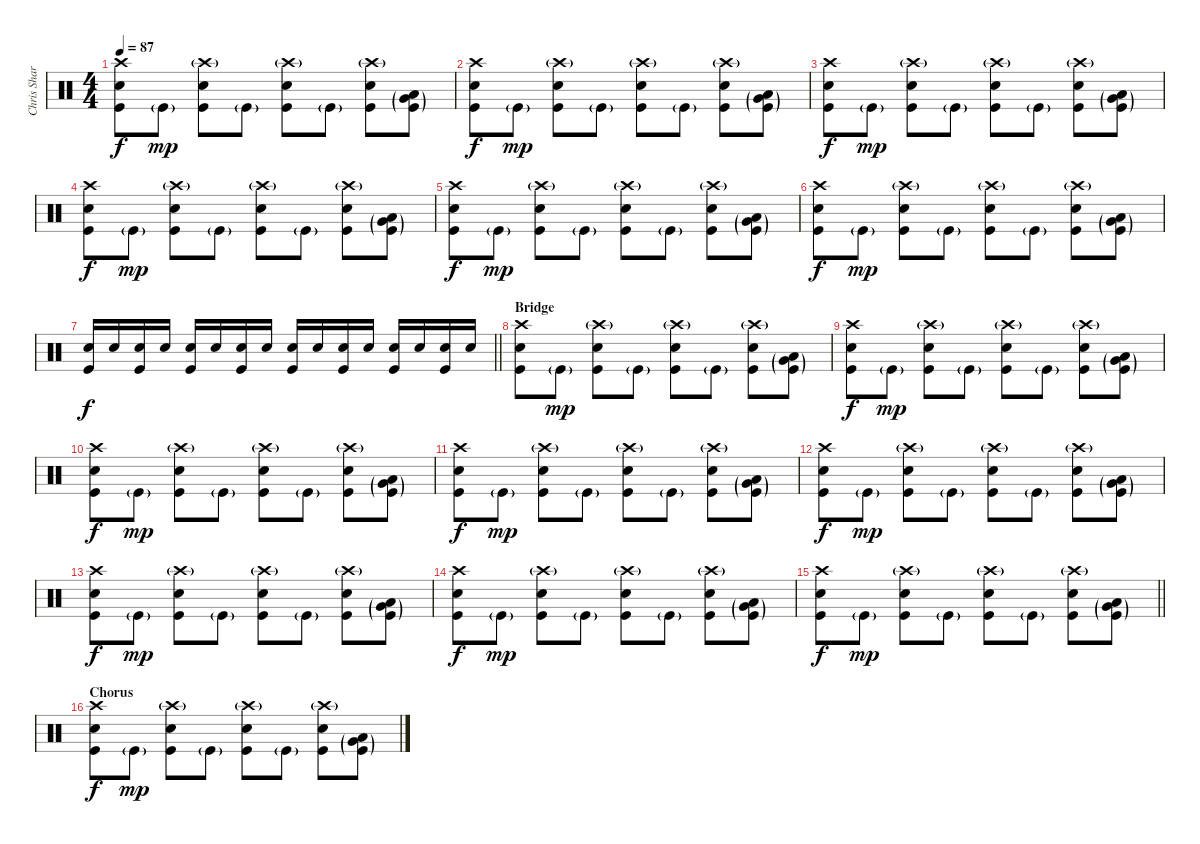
\track ("Chris Sharrock" "Chris Shar") {instrument percussion}
\staff {score}
\articulation defaults
\ts (4 4)
\tempo 87
\clef neutral
\ks c
("Kick (hit)" "Snare (hit) 2" "Crash high (hit)").8{dy f} "Kick (hit)"{g}.8{dy mp} ("Kick (hit)" "Snare (hit) 2" "Crash high (hit)"{g}).8 "Kick (hit)"{g}.8 ("Kick (hit)" "Snare (hit) 2" "Crash high (hit)"{g}).8 "Kick (hit)"{g}.8 ("Kick (hit)" "Snare (hit) 2" "Crash high (hit)"{g}).8 ("Low Tom (hit)"{g} "Very Low Tom (hit)"{g} "Kick (hit)"{g}).8 |
("Kick (hit)" "Snare (hit) 2" "Crash high (hit)").8{dy f} "Kick (hit)"{g}.8{dy mp} ("Kick (hit)" "Snare (hit) 2" "Crash high (hit)"{g}).8 "Kick (hit)"{g}.8 ("Kick (hit)" "Snare (hit) 2" "Crash high (hit)"{g}).8 "Kick (hit)"{g}.8 ("Kick (hit)" "Snare (hit) 2" "Crash high (hit)"{g}).8 ("Low Tom (hit)"{g} "Very Low Tom (hit)"{g} "Kick (hit)"{g}).8 |
("Kick (hit)" "Snare (hit) 2" "Crash high (hit)").8{dy f} "Kick (hit)"{g}.8{dy mp} ("Kick (hit)" "Snare (hit) 2" "Crash high (hit)"{g}).8 "Kick (hit)"{g}.8 ("Kick (hit)" "Snare (hit) 2" "Crash high (hit)"{g}).8 "Kick (hit)"{g}.8 ("Kick (hit)" "Snare (hit) 2" "Crash high (hit)"{g}).8 ("Low Tom (hit)"{g} "Very Low Tom (hit)"{g} "Kick (hit)"{g}).8 |
("Kick (hit)" "Snare (hit) 2" "Crash high (hit)").8{dy f} "Kick (hit)"{g}.8{dy mp} ("Kick (hit)" "Snare (hit) 2" "Crash high (hit)"{g}).8 "Kick (hit)"{g}.8 ("Kick (hit)" "Snare (hit) 2" "Crash high (hit)"{g}).8 "Kick (hit)"{g}.8 ("Kick (hit)" "Snare (hit) 2" "Crash high (hit)"{g}).8 ("Low Tom (hit)"{g} "Very Low Tom (hit)"{g} "Kick (hit)"{g}).8 |
("Kick (hit)" "Snare (hit) 2" "Crash high (hit)").8{dy f} "Kick (hit)"{g}.8{dy mp} ("Kick (hit)" "Snare (hit) 2" "Crash high (hit)"{g}).8 "Kick (hit)"{g}.8 ("Kick (hit)" "Snare (hit) 2" "Crash high (hit)"{g}).8 "Kick (hit)"{g}.8 ("Kick (hit)" "Snare (hit) 2" "Crash high (hit)"{g}).8 ("Low Tom (hit)"{g} "Very Low Tom (hit)"{g} "Kick (hit)"{g}).8 |
("Kick (hit)" "Snare (hit) 2" "Crash high (hit)").8{dy f} "Kick (hit)"{g}.8{dy mp} ("Kick (hit)" "Snare (hit) 2" "Crash high (hit)"{g}).8 "Kick (hit)"{g}.8 ("Kick (hit)" "Snare (hit) 2" "Crash high (hit)"{g}).8 "Kick (hit)"{g}.8 ("Kick (hit)" "Snare (hit) 2" "Crash high (hit)"{g}).8 ("Low Tom (hit)"{g} "Very Low Tom (hit)"{g} "Kick (hit)"{g}).8 |
\barLineRight lightlight
("Kick (hit)" "Snare (hit) 2").16{dy f} "Snare (hit) 2".16 ("Snare (hit) 2" "Kick (hit)").16 "Snare (hit) 2".16 ("Kick (hit)" "Snare (hit) 2").16 "Snare (hit) 2".16 ("Kick (hit)" "Snare (hit) 2").16 "Snare (hit) 2".16 ("Kick (hit)" "Snare (hit) 2").16 "Snare (hit) 2".16 ("Snare (hit) 2" "Kick (hit)").16 "Snare (hit) 2".16 ("Kick (hit)" "Snare (hit) 2").16 "Snare (hit) 2".16 ("Kick (hit)" "Snare (hit) 2").16 "Snare (hit) 2".16 |
\section ("" "Bridge")
("Kick (hit)" "Snare (hit) 2" "Crash high (hit)").8 "Kick (hit)"{g}.8{dy mp} ("Kick (hit)" "Snare (hit) 2" "Crash high (hit)"{g}).8 "Kick (hit)"{g}.8 ("Kick (hit)" "Snare (hit) 2" "Crash high (hit)"{g}).8 "Kick (hit)"{g}.8 ("Kick (hit)" "Snare (hit) 2" "Crash high (hit)"{g}).8 ("Low Tom (hit)"{g} "Very Low Tom (hit)"{g} "Kick (hit)"{g}).8 |
("Kick (hit)" "Snare (hit) 2" "Crash high (hit)").8{dy f} "Kick (hit)"{g}.8{dy mp} ("Kick (hit)" "Snare (hit) 2" "Crash high (hit)"{g}).8 "Kick (hit)"{g}.8 ("Kick (hit)" "Snare (hit) 2" "Crash high (hit)"{g}).8 "Kick (hit)"{g}.8 ("Kick (hit)" "Snare (hit) 2" "Crash high (hit)"{g}).8 ("Low Tom (hit)"{g} "Very Low Tom (hit)"{g} "Kick (hit)"{g}).8 |
("Kick (hit)" "Snare (hit) 2" "Crash high (hit)").8{dy f} "Kick (hit)"{g}.8{dy mp} ("Kick (hit)" "Snare (hit) 2" "Crash high (hit)"{g}).8 "Kick (hit)"{g}.8 ("Kick (hit)" "Snare (hit) 2" "Crash high (hit)"{g}).8 "Kick (hit)"{g}.8 ("Kick (hit)" "Snare (hit) 2" "Crash high (hit)"{g}).8 ("Low Tom (hit)"{g} "Very Low Tom (hit)"{g} "Kick (hit)"{g}).8 |
("Kick (hit)" "Snare (hit) 2" "Crash high (hit)").8{dy f} "Kick (hit)"{g}.8{dy mp} ("Kick (hit)" "Snare (hit) 2" "Crash high (hit)"{g}).8 "Kick (hit)"{g}.8 ("Kick (hit)" "Snare (hit) 2" "Crash high (hit)"{g}).8 "Kick (hit)"{g}.8 ("Kick (hit)" "Snare (hit) 2" "Crash high (hit)"{g}).8 ("Low Tom (hit)"{g} "Very Low Tom (hit)"{g} "Kick (hit)"{g}).8 |
("Kick (hit)" "Snare (hit) 2" "Crash high (hit)").8{dy f} "Kick (hit)"{g}.8{dy mp} ("Kick (hit)" "Snare (hit) 2" "Crash high (hit)"{g}).8 "Kick (hit)"{g}.8 ("Kick (hit)" "Snare (hit) 2" "Crash high (hit)"{g}).8 "Kick (hit)"{g}.8 ("Kick (hit)" "Snare (hit) 2" "Crash high (hit)"{g}).8 ("Low Tom (hit)"{g} "Very Low Tom (hit)"{g} "Kick (hit)"{g}).8 |
("Kick (hit)" "Snare (hit) 2" "Crash high (hit)").8{dy f} "Kick (hit)"{g}.8{dy mp} ("Kick (hit)" "Snare (hit) 2" "Crash high (hit)"{g}).8 "Kick (hit)"{g}.8 ("Kick (hit)" "Snare (hit) 2" "Crash high (hit)"{g}).8 "Kick (hit)"{g}.8 ("Kick (hit)" "Snare (hit) 2" "Crash high (hit)"{g}).8 ("Low Tom (hit)"{g} "Very Low Tom (hit)"{g} "Kick (hit)"{g}).8 |
("Kick (hit)" "Snare (hit) 2" "Crash high (hit)").8{dy f} "Kick (hit)"{g}.8{dy mp} ("Kick (hit)" "Snare (hit) 2" "Crash high (hit)"{g}).8 "Kick (hit)"{g}.8 ("Kick (hit)" "Snare (hit) 2" "Crash high (hit)"{g}).8 "Kick (hit)"{g}.8 ("Kick (hit)" "Snare (hit) 2" "Crash high (hit)"{g}).8 ("Low Tom (hit)"{g} "Very Low Tom (hit)"{g} "Kick (hit)"{g}).8 |
\barLineRight lightlight
("Kick (hit)" "Snare (hit) 2" "Crash high (hit)").8{dy f} "Kick (hit)"{g}.8{dy mp} ("Kick (hit)" "Snare (hit) 2" "Crash high (hit)"{g}).8 "Kick (hit)"{g}.8 ("Kick (hit)" "Snare (hit) 2" "Crash high (hit)"{g}).8 "Kick (hit)"{g}.8 ("Kick (hit)" "Snare (hit) 2" "Crash high (hit)"{g}).8 ("Low Tom (hit)"{g} "Very Low Tom (hit)"{g} "Kick (hit)"{g}).8 |
\section ("" "Chorus")
("Kick (hit)" "Snare (hit) 2" "Crash high (hit)").8{dy f} "Kick (hit)"{g}.8{dy mp} ("Kick (hit)" "Snare (hit) 2" "Crash high (hit)"{g}).8 "Kick (hit)"{g}.8 ("Kick (hit)" "Snare (hit) 2" "Crash high (hit)"{g}).8 "Kick (hit)"{g}.8 ("Kick (hit)" "Snare (hit) 2" "Crash high (hit)"{g}).8 ("Low Tom (hit)"{g} "Very Low Tom (hit)"{g} "Kick (hit)"{g}).8
